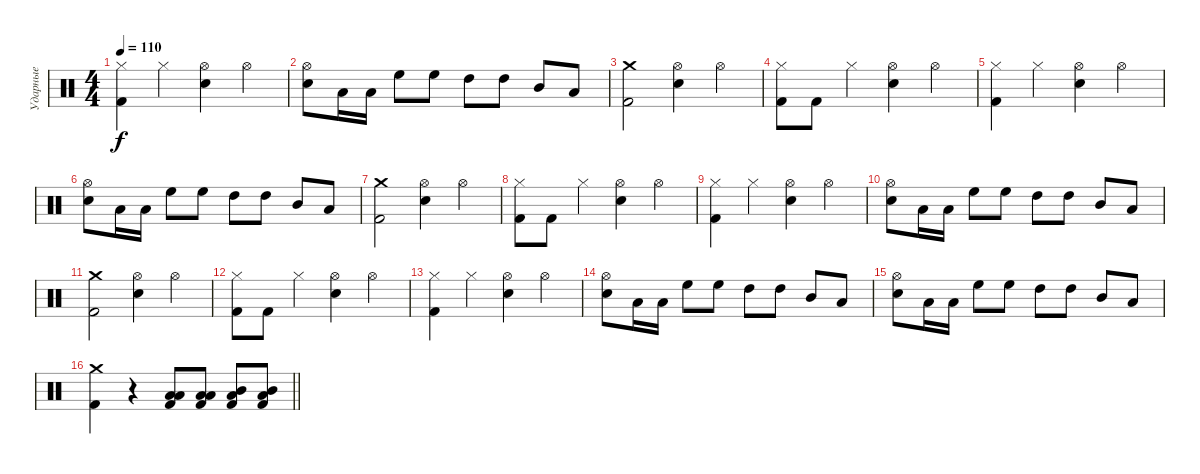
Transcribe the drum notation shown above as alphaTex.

\track ("Ударные" "Ударные") {instrument percussion}
\staff {score}
\articulation defaults
\ts (4 4)
\tempo 110
\clef neutral
\ks c
("Hi-Hat (closed)" "Kick (hit) 2").4{dy f} "Hi-Hat (closed)".4 ("Hi-Hat (open)" "Snare (hit) 2").4 "Hi-Hat (open)".4 |
("Hi-Hat (open)" "Snare (hit) 2").8 "Low Tom (hit)".16 "Low Tom (hit)".16 "High Floor Tom (hit)".8 "High Floor Tom (hit)".8 "High Tom (hit)".8 "High Tom (hit)".8 "Mid Tom (hit)".8 "Low Tom (hit)".8 |
("Crash medium (hit)" "Kick (hit) 2").2 ("Hi-Hat (open)" "Snare (hit) 2").4 "Hi-Hat (open)".4 |
("Hi-Hat (closed)" "Kick (hit) 2").8 "Kick (hit) 2".8 "Hi-Hat (closed)".4 ("Hi-Hat (open)" "Snare (hit) 2").4 "Hi-Hat (open)".4 |
("Hi-Hat (closed)" "Kick (hit) 2").4 "Hi-Hat (closed)".4 ("Hi-Hat (open)" "Snare (hit) 2").4 "Hi-Hat (open)".4 |
("Hi-Hat (open)" "Snare (hit) 2").8 "Low Tom (hit)".16 "Low Tom (hit)".16 "High Floor Tom (hit)".8 "High Floor Tom (hit)".8 "High Tom (hit)".8 "High Tom (hit)".8 "Mid Tom (hit)".8 "Low Tom (hit)".8 |
("Crash medium (hit)" "Kick (hit) 2").2 ("Hi-Hat (open)" "Snare (hit) 2").4 "Hi-Hat (open)".4 |
("Hi-Hat (closed)" "Kick (hit) 2").8 "Kick (hit) 2".8 "Hi-Hat (closed)".4 ("Hi-Hat (open)" "Snare (hit) 2").4 "Hi-Hat (open)".4 |
("Hi-Hat (closed)" "Kick (hit) 2").4 "Hi-Hat (closed)".4 ("Hi-Hat (open)" "Snare (hit) 2").4 "Hi-Hat (open)".4 |
("Hi-Hat (open)" "Snare (hit) 2").8 "Low Tom (hit)".16 "Low Tom (hit)".16 "High Floor Tom (hit)".8 "High Floor Tom (hit)".8 "High Tom (hit)".8 "High Tom (hit)".8 "Mid Tom (hit)".8 "Low Tom (hit)".8 |
("Crash medium (hit)" "Kick (hit) 2").2 ("Hi-Hat (open)" "Snare (hit) 2").4 "Hi-Hat (open)".4 |
("Hi-Hat (closed)" "Kick (hit) 2").8 "Kick (hit) 2".8 "Hi-Hat (closed)".4 ("Hi-Hat (open)" "Snare (hit) 2").4 "Hi-Hat (open)".4 |
("Hi-Hat (closed)" "Kick (hit) 2").4 "Hi-Hat (closed)".4 ("Hi-Hat (open)" "Snare (hit) 2").4 "Hi-Hat (open)".4 |
("Hi-Hat (open)" "Snare (hit) 2").8 "Low Tom (hit)".16 "Low Tom (hit)".16 "High Floor Tom (hit)".8 "High Floor Tom (hit)".8 "High Tom (hit)".8 "High Tom (hit)".8 "Mid Tom (hit)".8 "Low Tom (hit)".8 |
("Hi-Hat (open)" "Snare (hit) 2").8 "Low Tom (hit)".16 "Low Tom (hit)".16 "High Floor Tom (hit)".8 "High Floor Tom (hit)".8 "High Tom (hit)".8 "High Tom (hit)".8 "Mid Tom (hit)".8 "Low Tom (hit)".8 |
\barLineRight lightlight
("Crash medium (hit)" "Kick (hit) 2").4 r.4 ("Low Tom (hit)" "Low Tom (hit)" "Kick (hit) 2").8 ("Low Tom (hit)" "Low Tom (hit)" "Kick (hit) 2").8 ("Mid Tom (hit)" "Low Tom (hit)" "Kick (hit) 2").8 ("Mid Tom (hit)" "Low Tom (hit)" "Kick (hit) 2").8
